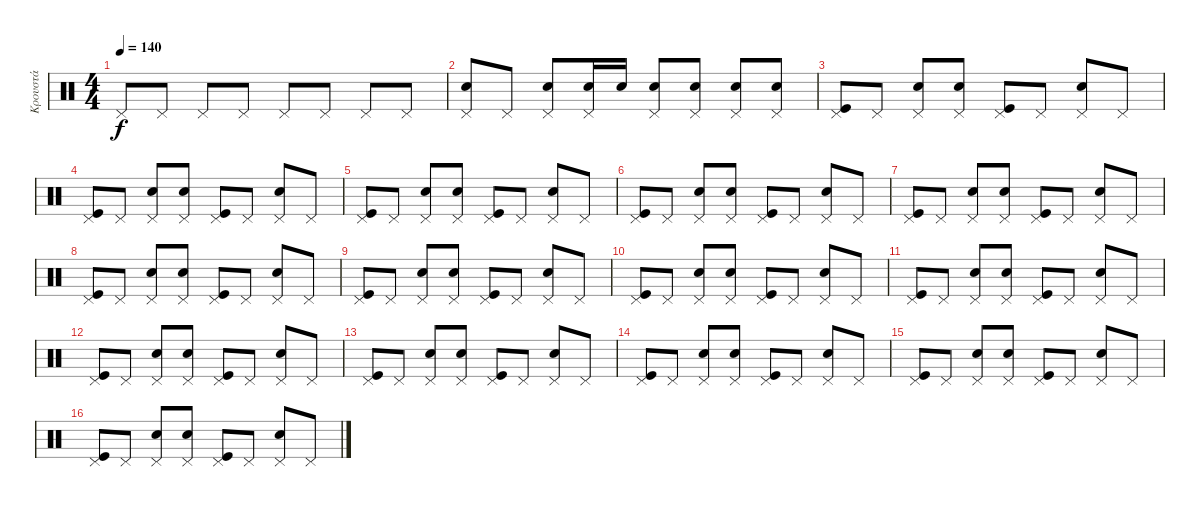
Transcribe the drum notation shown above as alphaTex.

\track ("Κρουστά" "Κρουστά") {instrument percussion}
\staff {score}
\articulation defaults
\ts (4 4)
\tempo 140
\clef neutral
\ks c "Pedal Hi-Hat (hit)".8{dy f} "Pedal Hi-Hat (hit)".8 "Pedal Hi-Hat (hit)".8 "Pedal Hi-Hat (hit)".8 "Pedal Hi-Hat (hit)".8 "Pedal Hi-Hat (hit)".8 "Pedal Hi-Hat (hit)".8 "Pedal Hi-Hat (hit)".8
|
("Pedal Hi-Hat (hit)" "Snare (hit) 2").8 "Pedal Hi-Hat (hit)".8 ("Pedal Hi-Hat (hit)" "Snare (hit) 2").8 ("Pedal Hi-Hat (hit)" "Snare (hit) 2").16 "Snare (hit) 2".16 ("Pedal Hi-Hat (hit)" "Snare (hit) 2").8 ("Pedal Hi-Hat (hit)" "Snare (hit) 2").8 ("Pedal Hi-Hat (hit)" "Snare (hit) 2").8 ("Pedal Hi-Hat (hit)" "Snare (hit) 2").8 |
("Pedal Hi-Hat (hit)" "Kick (hit)").8 "Pedal Hi-Hat (hit)".8 ("Pedal Hi-Hat (hit)" "Snare (hit) 2").8 ("Pedal Hi-Hat (hit)" "Snare (hit) 2").8 ("Pedal Hi-Hat (hit)" "Kick (hit)").8 "Pedal Hi-Hat (hit)".8 ("Pedal Hi-Hat (hit)" "Snare (hit) 2").8 "Pedal Hi-Hat (hit)".8 |
("Pedal Hi-Hat (hit)" "Kick (hit)").8 "Pedal Hi-Hat (hit)".8 ("Pedal Hi-Hat (hit)" "Snare (hit) 2").8 ("Pedal Hi-Hat (hit)" "Snare (hit) 2").8 ("Pedal Hi-Hat (hit)" "Kick (hit)").8 "Pedal Hi-Hat (hit)".8 ("Pedal Hi-Hat (hit)" "Snare (hit) 2").8 "Pedal Hi-Hat (hit)".8 |
("Pedal Hi-Hat (hit)" "Kick (hit)").8 "Pedal Hi-Hat (hit)".8 ("Pedal Hi-Hat (hit)" "Snare (hit) 2").8 ("Pedal Hi-Hat (hit)" "Snare (hit) 2").8 ("Pedal Hi-Hat (hit)" "Kick (hit)").8 "Pedal Hi-Hat (hit)".8 ("Pedal Hi-Hat (hit)" "Snare (hit) 2").8 "Pedal Hi-Hat (hit)".8 |
("Pedal Hi-Hat (hit)" "Kick (hit)").8 "Pedal Hi-Hat (hit)".8 ("Pedal Hi-Hat (hit)" "Snare (hit) 2").8 ("Pedal Hi-Hat (hit)" "Snare (hit) 2").8 ("Pedal Hi-Hat (hit)" "Kick (hit)").8 "Pedal Hi-Hat (hit)".8 ("Pedal Hi-Hat (hit)" "Snare (hit) 2").8 "Pedal Hi-Hat (hit)".8 |
("Pedal Hi-Hat (hit)" "Kick (hit)").8 "Pedal Hi-Hat (hit)".8 ("Pedal Hi-Hat (hit)" "Snare (hit) 2").8 ("Pedal Hi-Hat (hit)" "Snare (hit) 2").8 ("Pedal Hi-Hat (hit)" "Kick (hit)").8 "Pedal Hi-Hat (hit)".8 ("Pedal Hi-Hat (hit)" "Snare (hit) 2").8 "Pedal Hi-Hat (hit)".8 |
("Pedal Hi-Hat (hit)" "Kick (hit)").8 "Pedal Hi-Hat (hit)".8 ("Pedal Hi-Hat (hit)" "Snare (hit) 2").8 ("Pedal Hi-Hat (hit)" "Snare (hit) 2").8 ("Pedal Hi-Hat (hit)" "Kick (hit)").8 "Pedal Hi-Hat (hit)".8 ("Pedal Hi-Hat (hit)" "Snare (hit) 2").8 "Pedal Hi-Hat (hit)".8 |
("Pedal Hi-Hat (hit)" "Kick (hit)").8 "Pedal Hi-Hat (hit)".8 ("Pedal Hi-Hat (hit)" "Snare (hit) 2").8 ("Pedal Hi-Hat (hit)" "Snare (hit) 2").8 ("Pedal Hi-Hat (hit)" "Kick (hit)").8 "Pedal Hi-Hat (hit)".8 ("Pedal Hi-Hat (hit)" "Snare (hit) 2").8 "Pedal Hi-Hat (hit)".8 |
("Pedal Hi-Hat (hit)" "Kick (hit)").8 "Pedal Hi-Hat (hit)".8 ("Pedal Hi-Hat (hit)" "Snare (hit) 2").8 ("Pedal Hi-Hat (hit)" "Snare (hit) 2").8 ("Pedal Hi-Hat (hit)" "Kick (hit)").8 "Pedal Hi-Hat (hit)".8 ("Pedal Hi-Hat (hit)" "Snare (hit) 2").8 "Pedal Hi-Hat (hit)".8 |
("Pedal Hi-Hat (hit)" "Kick (hit)").8 "Pedal Hi-Hat (hit)".8 ("Pedal Hi-Hat (hit)" "Snare (hit) 2").8 ("Pedal Hi-Hat (hit)" "Snare (hit) 2").8 ("Pedal Hi-Hat (hit)" "Kick (hit)").8 "Pedal Hi-Hat (hit)".8 ("Pedal Hi-Hat (hit)" "Snare (hit) 2").8 "Pedal Hi-Hat (hit)".8 |
("Pedal Hi-Hat (hit)" "Kick (hit)").8 "Pedal Hi-Hat (hit)".8 ("Pedal Hi-Hat (hit)" "Snare (hit) 2").8 ("Pedal Hi-Hat (hit)" "Snare (hit) 2").8 ("Pedal Hi-Hat (hit)" "Kick (hit)").8 "Pedal Hi-Hat (hit)".8 ("Pedal Hi-Hat (hit)" "Snare (hit) 2").8 "Pedal Hi-Hat (hit)".8 |
("Pedal Hi-Hat (hit)" "Kick (hit)").8 "Pedal Hi-Hat (hit)".8 ("Pedal Hi-Hat (hit)" "Snare (hit) 2").8 ("Pedal Hi-Hat (hit)" "Snare (hit) 2").8 ("Pedal Hi-Hat (hit)" "Kick (hit)").8 "Pedal Hi-Hat (hit)".8 ("Pedal Hi-Hat (hit)" "Snare (hit) 2").8 "Pedal Hi-Hat (hit)".8 |
("Pedal Hi-Hat (hit)" "Kick (hit)").8 "Pedal Hi-Hat (hit)".8 ("Pedal Hi-Hat (hit)" "Snare (hit) 2").8 ("Pedal Hi-Hat (hit)" "Snare (hit) 2").8 ("Pedal Hi-Hat (hit)" "Kick (hit)").8 "Pedal Hi-Hat (hit)".8 ("Pedal Hi-Hat (hit)" "Snare (hit) 2").8 "Pedal Hi-Hat (hit)".8 |
("Pedal Hi-Hat (hit)" "Kick (hit)").8 "Pedal Hi-Hat (hit)".8 ("Pedal Hi-Hat (hit)" "Snare (hit) 2").8 ("Pedal Hi-Hat (hit)" "Snare (hit) 2").8 ("Pedal Hi-Hat (hit)" "Kick (hit)").8 "Pedal Hi-Hat (hit)".8 ("Pedal Hi-Hat (hit)" "Snare (hit) 2").8 "Pedal Hi-Hat (hit)".8 |
("Pedal Hi-Hat (hit)" "Kick (hit)").8 "Pedal Hi-Hat (hit)".8 ("Pedal Hi-Hat (hit)" "Snare (hit) 2").8 ("Pedal Hi-Hat (hit)" "Snare (hit) 2").8 ("Pedal Hi-Hat (hit)" "Kick (hit)").8 "Pedal Hi-Hat (hit)".8 ("Pedal Hi-Hat (hit)" "Snare (hit) 2").8 "Pedal Hi-Hat (hit)".8
